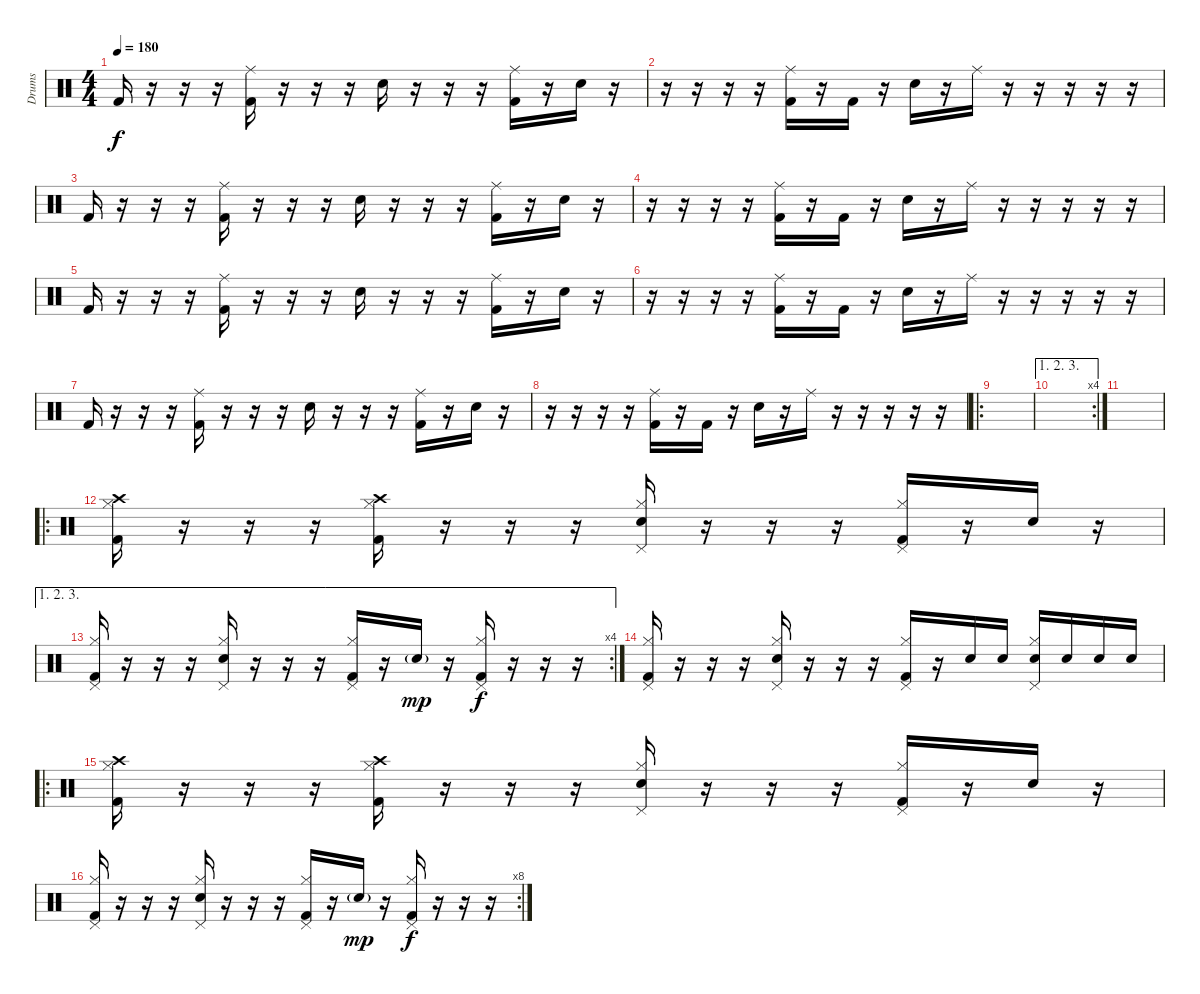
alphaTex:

\track ("Drums" "Drums") {instrument percussion}
\staff {score}
\articulation defaults
\ts (4 4)
\tempo 180
\clef neutral
\ks c "Kick (hit) 2".16{dy f}
r.16 r.16 r.16 ("Ride (middle)" "Kick (hit) 2").16 r.16 r.16 r.16 "Electric Snare (hit)".16 r.16 r.16 r.16 ("Ride (middle)" "Kick (hit) 2").16 r.16 "Electric Snare (hit)".16 r.16 |
r.16 r.16 r.16 r.16 ("Ride (middle)" "Kick (hit) 2").16 r.16 "Kick (hit) 2".16 r.16 "Electric Snare (hit)".16 r.16 "Ride (middle)".16 r.16 r.16 r.16 r.16 r.16 |
"Kick (hit) 2".16 r.16 r.16 r.16 ("Ride (middle)" "Kick (hit) 2").16 r.16 r.16 r.16 "Electric Snare (hit)".16 r.16 r.16 r.16 ("Ride (middle)" "Kick (hit) 2").16 r.16 "Electric Snare (hit)".16 r.16 |
r.16 r.16 r.16 r.16 ("Ride (middle)" "Kick (hit) 2").16 r.16 "Kick (hit) 2".16 r.16 "Electric Snare (hit)".16 r.16 "Ride (middle)".16 r.16 r.16 r.16 r.16 r.16 |
"Kick (hit) 2".16 r.16 r.16 r.16 ("Ride (middle)" "Kick (hit) 2").16 r.16 r.16 r.16 "Electric Snare (hit)".16 r.16 r.16 r.16 ("Ride (middle)" "Kick (hit) 2").16 r.16 "Electric Snare (hit)".16 r.16 |
r.16 r.16 r.16 r.16 ("Ride (middle)" "Kick (hit) 2").16 r.16 "Kick (hit) 2".16 r.16 "Electric Snare (hit)".16 r.16 "Ride (middle)".16 r.16 r.16 r.16 r.16 r.16 |
"Kick (hit) 2".16 r.16 r.16 r.16 ("Ride (middle)" "Kick (hit) 2").16 r.16 r.16 r.16 "Electric Snare (hit)".16 r.16 r.16 r.16 ("Ride (middle)" "Kick (hit) 2").16 r.16 "Electric Snare (hit)".16 r.16 |
r.16 r.16 r.16 r.16 ("Ride (middle)" "Kick (hit) 2").16 r.16 "Kick (hit) 2".16 r.16 "Electric Snare (hit)".16 r.16 "Ride (middle)".16 r.16 r.16 r.16 r.16 r.16 |
\ro
|
\ae (1 2 3)
\rc 4
|
|
\ro
("Crash high (hit)" "Hi-Hat (closed)" "Kick (hit) 2").16 r.16 r.16 r.16 ("Crash high (hit)" "Hi-Hat (closed)" "Kick (hit) 2").16 r.16 r.16 r.16 ("Pedal Hi-Hat (hit)" "Hi-Hat (closed)" "Electric Snare (hit)").16 r.16 r.16 r.16 ("Pedal Hi-Hat (hit)" "Hi-Hat (closed)" "Kick (hit) 2").16 r.16 "Electric Snare (hit)".16 r.16 |
\ae (1 2 3)
\rc 4
("Pedal Hi-Hat (hit)" "Hi-Hat (closed)" "Kick (hit) 2").16 r.16 r.16 r.16 ("Pedal Hi-Hat (hit)" "Hi-Hat (closed)" "Electric Snare (hit)").16 r.16 r.16 r.16 ("Pedal Hi-Hat (hit)" "Hi-Hat (closed)" "Kick (hit) 2").16 r.16 "Electric Snare (hit)"{g}.16{dy mp} r.16 ("Pedal Hi-Hat (hit)" "Hi-Hat (closed)" "Kick (hit) 2").16{dy f} r.16 r.16 r.16 |
("Pedal Hi-Hat (hit)" "Hi-Hat (closed)" "Kick (hit) 2").16 r.16 r.16 r.16 ("Pedal Hi-Hat (hit)" "Hi-Hat (closed)" "Electric Snare (hit)").16 r.16 r.16 r.16 ("Pedal Hi-Hat (hit)" "Hi-Hat (closed)" "Kick (hit) 2").16 r.16 "Electric Snare (hit)".16 "Electric Snare (hit)".16 ("Pedal Hi-Hat (hit)" "Hi-Hat (closed)" "Electric Snare (hit)").16 "Electric Snare (hit)".16 "Electric Snare (hit)".16 "Electric Snare (hit)".16 |
\ro
("Crash high (hit)" "Hi-Hat (closed)" "Kick (hit) 2").16 r.16 r.16 r.16 ("Crash high (hit)" "Hi-Hat (closed)" "Kick (hit) 2").16 r.16 r.16 r.16 ("Pedal Hi-Hat (hit)" "Hi-Hat (closed)" "Electric Snare (hit)").16 r.16 r.16 r.16 ("Pedal Hi-Hat (hit)" "Hi-Hat (closed)" "Kick (hit) 2").16 r.16 "Electric Snare (hit)".16 r.16 |
\rc 8
("Pedal Hi-Hat (hit)" "Hi-Hat (closed)" "Kick (hit) 2").16 r.16 r.16 r.16 ("Pedal Hi-Hat (hit)" "Hi-Hat (closed)" "Electric Snare (hit)").16 r.16 r.16 r.16 ("Pedal Hi-Hat (hit)" "Hi-Hat (closed)" "Kick (hit) 2").16 r.16 "Electric Snare (hit)"{g}.16{dy mp} r.16 ("Pedal Hi-Hat (hit)" "Hi-Hat (closed)" "Kick (hit) 2").16{dy f} r.16 r.16 r.16
